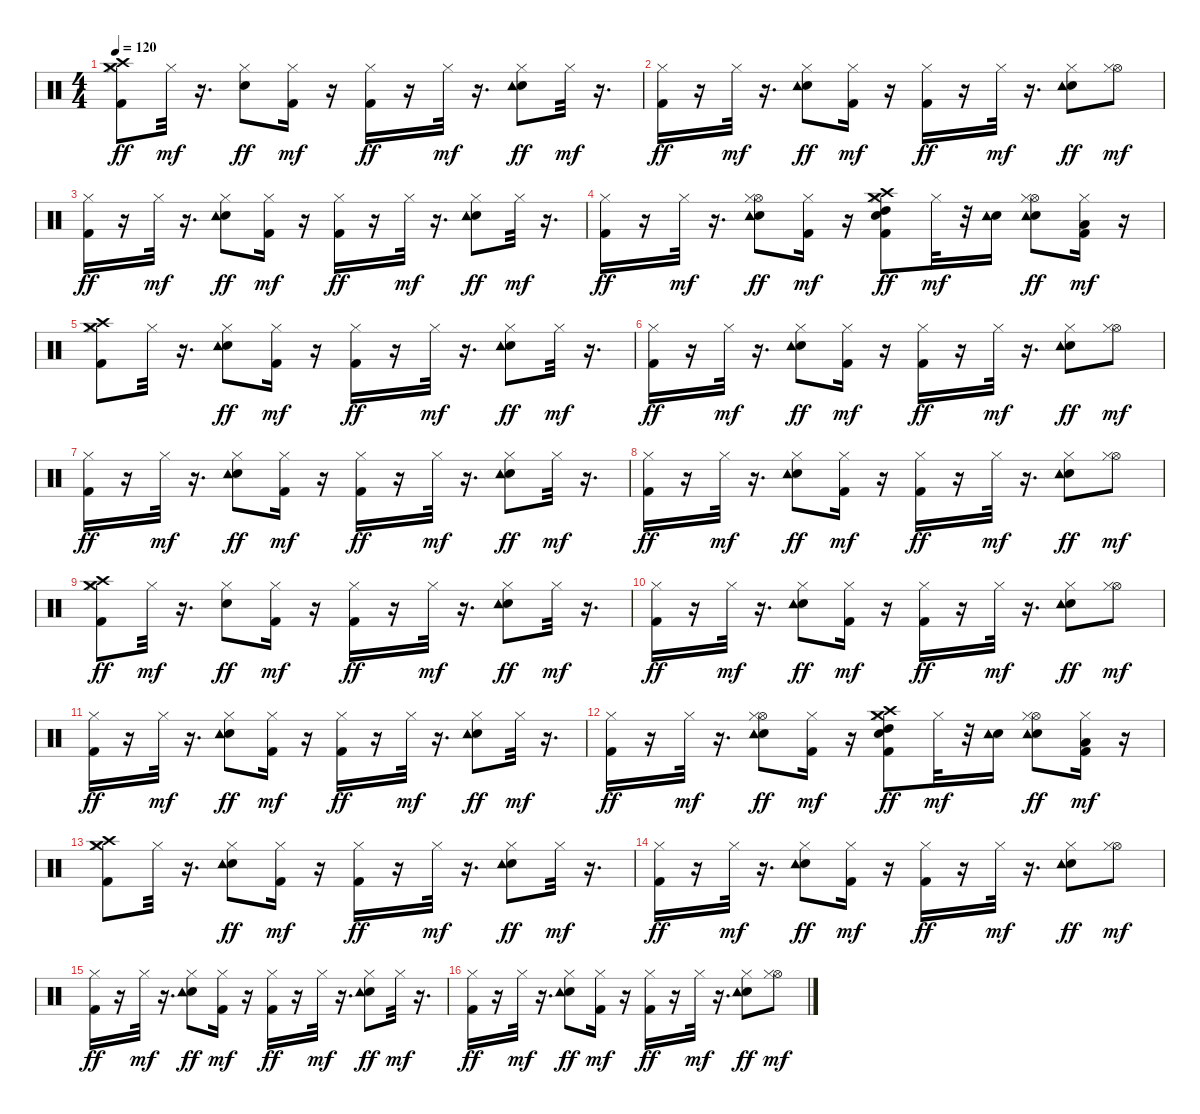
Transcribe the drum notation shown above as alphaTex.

\track "" {instrument percussion}
\staff {score}
\articulation defaults
\ts (4 4)
\tempo 120
\clef neutral
\ks c
("Crash medium (hit)" "Crash high (hit)" "Hi-Hat (closed)" "Kick (hit) 2").8{dy ff} "Hi-Hat (closed)".32{dy mf} r.16{d} ("Snare (hit) 2" "Hi-Hat (closed)").8{dy ff} ("Hi-Hat (closed)" "Kick (hit) 2").16{dy mf} r.16 ("Hi-Hat (closed)" "Kick (hit) 2").16{dy ff} r.16 "Hi-Hat (closed)".32{dy mf} r.16{d} ("Snare (hit) 2" "Tambourine (hit)" "Hi-Hat (closed)").8{dy ff} "Hi-Hat (closed)".32{dy mf} r.16{d} |
("Hi-Hat (closed)" "Kick (hit) 2").16{dy ff} r.16 "Hi-Hat (closed)".32{dy mf} r.16{d} ("Snare (hit) 2" "Tambourine (hit)" "Hi-Hat (closed)").8{dy ff} ("Hi-Hat (closed)" "Kick (hit) 2").16{dy mf} r.16 ("Hi-Hat (closed)" "Kick (hit) 2").16{dy ff} r.16 "Hi-Hat (closed)".32{dy mf} r.16{d} ("Snare (hit) 2" "Tambourine (hit)" "Hi-Hat (closed)").8{dy ff} ("Hi-Hat (open)" "Hi-Hat (closed)").8{dy mf} |
("Hi-Hat (closed)" "Kick (hit) 2").16{dy ff} r.16 "Hi-Hat (closed)".32{dy mf} r.16{d} ("Snare (hit) 2" "Tambourine (hit)" "Hi-Hat (closed)").8{dy ff} ("Hi-Hat (closed)" "Kick (hit) 2").16{dy mf} r.16 ("Hi-Hat (closed)" "Kick (hit) 2").16{dy ff} r.16 "Hi-Hat (closed)".32{dy mf} r.16{d} ("Snare (hit) 2" "Tambourine (hit)" "Hi-Hat (closed)").8{dy ff} "Hi-Hat (closed)".32{dy mf} r.16{d} |
("Hi-Hat (closed)" "Kick (hit) 2").16{dy ff} r.16 "Hi-Hat (closed)".32{dy mf} r.16{d} ("Hi-Hat (open)" "Snare (hit) 2" "Tambourine (hit)" "Hi-Hat (closed)").8{dy ff} ("Hi-Hat (closed)" "Kick (hit) 2").16{dy mf} r.16 ("High Tom (hit)" "Snare (hit) 2" "Crash high (hit)" "Crash medium (hit)" "Hi-Hat (closed)" "Kick (hit) 2").8{dy ff} "Hi-Hat (closed)".32{dy mf} r.32 ("Snare (hit) 2" "Tambourine (hit)").16 ("Snare (hit) 2" "Tambourine (hit)" "Hi-Hat (open)" "Hi-Hat (closed)").8{dy ff} ("Low Floor Tom (hit)" "Hi-Hat (closed)" "Kick (hit) 2").16{dy mf} r.16 |
("Hi-Hat (closed)" "Crash medium (hit)" "Crash high (hit)" "Kick (hit) 2").8 "Hi-Hat (closed)".32 r.16{d} ("Snare (hit) 2" "Tambourine (hit)" "Hi-Hat (closed)").8{dy ff} ("Hi-Hat (closed)" "Kick (hit) 2").16{dy mf} r.16 ("Hi-Hat (closed)" "Kick (hit) 2").16{dy ff} r.16 "Hi-Hat (closed)".32{dy mf} r.16{d} ("Snare (hit) 2" "Tambourine (hit)" "Hi-Hat (closed)").8{dy ff} "Hi-Hat (closed)".32{dy mf} r.16{d} |
("Hi-Hat (closed)" "Kick (hit) 2").16{dy ff} r.16 "Hi-Hat (closed)".32{dy mf} r.16{d} ("Snare (hit) 2" "Tambourine (hit)" "Hi-Hat (closed)").8{dy ff} ("Hi-Hat (closed)" "Kick (hit) 2").16{dy mf} r.16 ("Hi-Hat (closed)" "Kick (hit) 2").16{dy ff} r.16 "Hi-Hat (closed)".32{dy mf} r.16{d} ("Snare (hit) 2" "Tambourine (hit)" "Hi-Hat (closed)").8{dy ff} ("Hi-Hat (open)" "Hi-Hat (closed)").8{dy mf} |
("Hi-Hat (closed)" "Kick (hit) 2").16{dy ff} r.16 "Hi-Hat (closed)".32{dy mf} r.16{d} ("Snare (hit) 2" "Tambourine (hit)" "Hi-Hat (closed)").8{dy ff} ("Hi-Hat (closed)" "Kick (hit) 2").16{dy mf} r.16 ("Hi-Hat (closed)" "Kick (hit) 2").16{dy ff} r.16 "Hi-Hat (closed)".32{dy mf} r.16{d} ("Snare (hit) 2" "Tambourine (hit)" "Hi-Hat (closed)").8{dy ff} "Hi-Hat (closed)".32{dy mf} r.16{d} |
("Hi-Hat (closed)" "Kick (hit) 2").16{dy ff} r.16 "Hi-Hat (closed)".32{dy mf} r.16{d} ("Snare (hit) 2" "Tambourine (hit)" "Hi-Hat (closed)").8{dy ff} ("Hi-Hat (closed)" "Kick (hit) 2").16{dy mf} r.16 ("Hi-Hat (closed)" "Kick (hit) 2").16{dy ff} r.16 "Hi-Hat (closed)".32{dy mf} r.16{d} ("Snare (hit) 2" "Tambourine (hit)" "Hi-Hat (closed)").8{dy ff} ("Hi-Hat (open)" "Hi-Hat (closed)").8{dy mf} |
("Crash medium (hit)" "Crash high (hit)" "Hi-Hat (closed)" "Kick (hit) 2").8{dy ff} "Hi-Hat (closed)".32{dy mf} r.16{d} ("Snare (hit) 2" "Hi-Hat (closed)").8{dy ff} ("Hi-Hat (closed)" "Kick (hit) 2").16{dy mf} r.16 ("Hi-Hat (closed)" "Kick (hit) 2").16{dy ff} r.16 "Hi-Hat (closed)".32{dy mf} r.16{d} ("Snare (hit) 2" "Tambourine (hit)" "Hi-Hat (closed)").8{dy ff} "Hi-Hat (closed)".32{dy mf} r.16{d} |
("Hi-Hat (closed)" "Kick (hit) 2").16{dy ff} r.16 "Hi-Hat (closed)".32{dy mf} r.16{d} ("Snare (hit) 2" "Tambourine (hit)" "Hi-Hat (closed)").8{dy ff} ("Hi-Hat (closed)" "Kick (hit) 2").16{dy mf} r.16 ("Hi-Hat (closed)" "Kick (hit) 2").16{dy ff} r.16 "Hi-Hat (closed)".32{dy mf} r.16{d} ("Snare (hit) 2" "Tambourine (hit)" "Hi-Hat (closed)").8{dy ff} ("Hi-Hat (open)" "Hi-Hat (closed)").8{dy mf} |
("Hi-Hat (closed)" "Kick (hit) 2").16{dy ff} r.16 "Hi-Hat (closed)".32{dy mf} r.16{d} ("Snare (hit) 2" "Tambourine (hit)" "Hi-Hat (closed)").8{dy ff} ("Hi-Hat (closed)" "Kick (hit) 2").16{dy mf} r.16 ("Hi-Hat (closed)" "Kick (hit) 2").16{dy ff} r.16 "Hi-Hat (closed)".32{dy mf} r.16{d} ("Snare (hit) 2" "Tambourine (hit)" "Hi-Hat (closed)").8{dy ff} "Hi-Hat (closed)".32{dy mf} r.16{d} |
("Hi-Hat (closed)" "Kick (hit) 2").16{dy ff} r.16 "Hi-Hat (closed)".32{dy mf} r.16{d} ("Hi-Hat (open)" "Snare (hit) 2" "Tambourine (hit)" "Hi-Hat (closed)").8{dy ff} ("Hi-Hat (closed)" "Kick (hit) 2").16{dy mf} r.16 ("High Tom (hit)" "Snare (hit) 2" "Crash high (hit)" "Crash medium (hit)" "Hi-Hat (closed)" "Kick (hit) 2").8{dy ff} "Hi-Hat (closed)".32{dy mf} r.32 ("Snare (hit) 2" "Tambourine (hit)").16 ("Snare (hit) 2" "Tambourine (hit)" "Hi-Hat (open)" "Hi-Hat (closed)").8{dy ff} ("Low Floor Tom (hit)" "Hi-Hat (closed)" "Kick (hit) 2").16{dy mf} r.16 |
("Hi-Hat (closed)" "Crash medium (hit)" "Crash high (hit)" "Kick (hit) 2").8 "Hi-Hat (closed)".32 r.16{d} ("Snare (hit) 2" "Tambourine (hit)" "Hi-Hat (closed)").8{dy ff} ("Hi-Hat (closed)" "Kick (hit) 2").16{dy mf} r.16 ("Hi-Hat (closed)" "Kick (hit) 2").16{dy ff} r.16 "Hi-Hat (closed)".32{dy mf} r.16{d} ("Snare (hit) 2" "Tambourine (hit)" "Hi-Hat (closed)").8{dy ff} "Hi-Hat (closed)".32{dy mf} r.16{d} |
("Hi-Hat (closed)" "Kick (hit) 2").16{dy ff} r.16 "Hi-Hat (closed)".32{dy mf} r.16{d} ("Snare (hit) 2" "Tambourine (hit)" "Hi-Hat (closed)").8{dy ff} ("Hi-Hat (closed)" "Kick (hit) 2").16{dy mf} r.16 ("Hi-Hat (closed)" "Kick (hit) 2").16{dy ff} r.16 "Hi-Hat (closed)".32{dy mf} r.16{d} ("Snare (hit) 2" "Tambourine (hit)" "Hi-Hat (closed)").8{dy ff} ("Hi-Hat (open)" "Hi-Hat (closed)").8{dy mf} |
("Hi-Hat (closed)" "Kick (hit) 2").16{dy ff} r.16 "Hi-Hat (closed)".32{dy mf} r.16{d} ("Snare (hit) 2" "Tambourine (hit)" "Hi-Hat (closed)").8{dy ff} ("Hi-Hat (closed)" "Kick (hit) 2").16{dy mf} r.16 ("Hi-Hat (closed)" "Kick (hit) 2").16{dy ff} r.16 "Hi-Hat (closed)".32{dy mf} r.16{d} ("Snare (hit) 2" "Tambourine (hit)" "Hi-Hat (closed)").8{dy ff} "Hi-Hat (closed)".32{dy mf} r.16{d} |
("Hi-Hat (closed)" "Kick (hit) 2").16{dy ff} r.16 "Hi-Hat (closed)".32{dy mf} r.16{d} ("Snare (hit) 2" "Tambourine (hit)" "Hi-Hat (closed)").8{dy ff} ("Hi-Hat (closed)" "Kick (hit) 2").16{dy mf} r.16 ("Hi-Hat (closed)" "Kick (hit) 2").16{dy ff} r.16 "Hi-Hat (closed)".32{dy mf} r.16{d} ("Snare (hit) 2" "Tambourine (hit)" "Hi-Hat (closed)").8{dy ff} ("Hi-Hat (open)" "Hi-Hat (closed)").8{dy mf}
